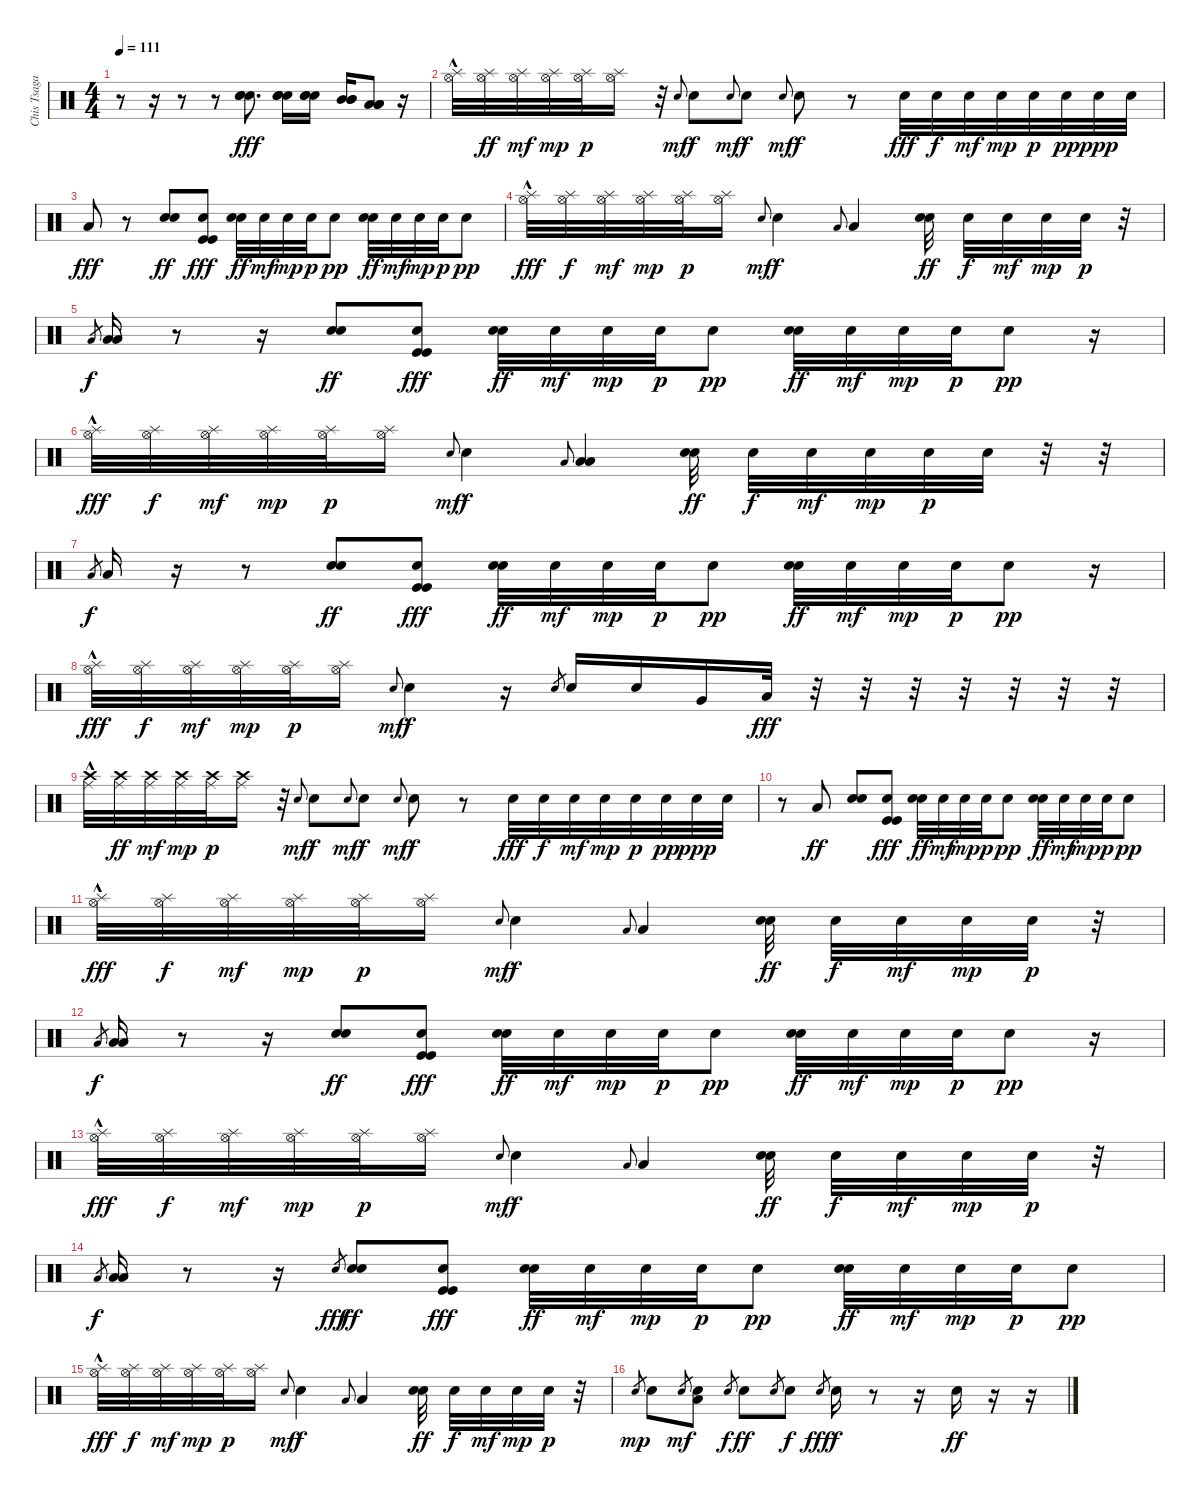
\track ("Chis Tsagakis" "Chis Tsaga") {instrument percussion}
\staff {score}
\articulation defaults
\ts (4 4)
\tempo 111
\clef neutral
\ks c
r.8{dy f} r.16 r.8 r.8 ("Electric Snare (hit)" "Snare (hit) 2" "Snare (hit) 2").8{d dy fff} ("Electric Snare (hit)" "Snare (hit) 2" "Snare (hit) 2").16 ("Electric Snare (hit)" "Snare (hit) 2" "Snare (hit) 2").16 ("Mid Tom (hit)" "Mid Tom (hit)" "Mid Tom (hit)").16 ("Low Tom (hit)" "Low Tom (hit)" "Low Tom (hit)").8 r.16 |
("Splash (hit)"{hac} "Hi-Hat (open)").32 ("Splash (hit)" "Hi-Hat (open)").32{dy ff} ("Splash (hit)" "Hi-Hat (open)").32{dy mf} ("Splash (hit)" "Hi-Hat (open)").32{dy mp} ("Splash (hit)" "Hi-Hat (open)").32{dy p} ("Splash (hit)" "Hi-Hat (open)").16 r.32 "Snare (hit) 2".8{gr onbeat dy mf} "Snare (hit) 2".8{dy f} "Snare (hit) 2".8{gr onbeat dy mf} "Snare (hit) 2".8{dy f} "Snare (hit) 2".8{gr onbeat dy mf} "Snare (hit) 2".8{dy f} r.8 "Electric Snare (hit)".32{dy fff} "Electric Snare (hit)".32{dy f} "Electric Snare (hit)".32{dy mf} "Electric Snare (hit)".32{dy mp} "Electric Snare (hit)".32{dy p} "Electric Snare (hit)".32{dy pp} "Electric Snare (hit)".32{dy ppp} "Electric Snare (hit)".32 |
"Low Tom (hit)".8{dy fff} r.8 ("Snare (hit) 2" "Snare (hit) 2").8{dy ff} ("Snare (hit) 2" "Kick (hit)" "Kick (hit)").8{dy fff} ("Snare (hit) 2" "Snare (hit) 2").32{dy ff} "Snare (hit) 2".32{dy mf} "Snare (hit) 2".32{dy mp} "Snare (hit) 2".32{dy p} "Snare (hit) 2".8{dy pp} ("Snare (hit) 2" "Snare (hit) 2").32{dy ff} "Snare (hit) 2".32{dy mf} "Snare (hit) 2".32{dy mp} "Snare (hit) 2".32{dy p} "Snare (hit) 2".8{dy pp} |
("Splash (hit)"{hac} "Hi-Hat (open)").32{dy fff} ("Splash (hit)" "Hi-Hat (open)").32{dy f} ("Splash (hit)" "Hi-Hat (open)").32{dy mf} ("Splash (hit)" "Hi-Hat (open)").32{dy mp} ("Splash (hit)" "Hi-Hat (open)").32{dy p} ("Splash (hit)" "Hi-Hat (open)").16 "Snare (hit) 2".8{gr onbeat dy mf} "Snare (hit) 2".4{dy f} "Low Tom (hit)".8{gr onbeat} "Low Tom (hit)".4 ("Electric Snare (hit)" "Electric Snare (hit)").32{dy ff} "Electric Snare (hit)".32{dy f} "Electric Snare (hit)".32{dy mf} "Electric Snare (hit)".32{dy mp} "Electric Snare (hit)".32{dy p} r.32 |
"Low Tom (hit)".8{gr dy f} ("Low Tom (hit)" "Low Tom (hit)").16 r.8 r.16 ("Snare (hit) 2" "Snare (hit) 2").8{dy ff} ("Snare (hit) 2" "Kick (hit)" "Kick (hit)").8{dy fff} ("Snare (hit) 2" "Snare (hit) 2").32{dy ff} "Snare (hit) 2".32{dy mf} "Snare (hit) 2".32{dy mp} "Snare (hit) 2".32{dy p} "Snare (hit) 2".8{dy pp} ("Snare (hit) 2" "Snare (hit) 2").32{dy ff} "Snare (hit) 2".32{dy mf} "Snare (hit) 2".32{dy mp} "Snare (hit) 2".32{dy p} "Snare (hit) 2".8{dy pp} r.16 |
("Splash (hit)"{hac} "Hi-Hat (open)").32{dy fff} ("Splash (hit)" "Hi-Hat (open)").32{dy f} ("Splash (hit)" "Hi-Hat (open)").32{dy mf} ("Splash (hit)" "Hi-Hat (open)").32{dy mp} ("Splash (hit)" "Hi-Hat (open)").32{dy p} ("Splash (hit)" "Hi-Hat (open)").16 "Snare (hit) 2".8{gr onbeat dy mf} "Snare (hit) 2".4{dy f} "Low Floor Tom (hit)".8{gr onbeat} ("Low Floor Tom (hit)" "Low Floor Tom (hit)").4 ("Electric Snare (hit)" "Electric Snare (hit)").32{dy ff} "Electric Snare (hit)".32{dy f} "Electric Snare (hit)".32{dy mf} "Electric Snare (hit)".32{dy mp} "Electric Snare (hit)".32{dy p} "Electric Snare (hit)".32 r.32 r.32 |
"Low Tom (hit)".8{gr dy f} "Low Tom (hit)".16 r.16 r.8 ("Snare (hit) 2" "Snare (hit) 2").8{dy ff} ("Snare (hit) 2" "Kick (hit)" "Kick (hit)").8{dy fff} ("Snare (hit) 2" "Snare (hit) 2").32{dy ff} "Snare (hit) 2".32{dy mf} "Snare (hit) 2".32{dy mp} "Snare (hit) 2".32{dy p} "Snare (hit) 2".8{dy pp} ("Snare (hit) 2" "Snare (hit) 2").32{dy ff} "Snare (hit) 2".32{dy mf} "Snare (hit) 2".32{dy mp} "Snare (hit) 2".32{dy p} "Snare (hit) 2".8{dy pp} r.16 |
("Splash (hit)"{hac} "Hi-Hat (open)").32{dy fff} ("Splash (hit)" "Hi-Hat (open)").32{dy f} ("Splash (hit)" "Hi-Hat (open)").32{dy mf} ("Splash (hit)" "Hi-Hat (open)").32{dy mp} ("Splash (hit)" "Hi-Hat (open)").32{dy p} ("Splash (hit)" "Hi-Hat (open)").16 "Snare (hit) 2".8{gr onbeat dy mf} "Snare (hit) 2".4{dy f} r.16 "Electric Snare (hit)".8{gr} "Electric Snare (hit)".16 "Electric Snare (hit)".16 "Very Low Tom (hit)".16 "Low Floor Tom (hit)".32{dy fff} r.32 r.32 r.32 r.32 r.32 r.32 r.32 |
("Ride (middle)"{hac} "Crash high (hit)").32 ("Ride (middle)" "Crash high (hit)").32{dy ff} ("Ride (middle)" "Crash high (hit)").32{dy mf} ("Ride (middle)" "Crash high (hit)").32{dy mp} ("Ride (middle)" "Crash high (hit)").32{dy p} ("Ride (middle)" "Crash high (hit)").16 r.32 "Snare (hit) 2".8{gr onbeat dy mf} "Snare (hit) 2".8{dy f} "Snare (hit) 2".8{gr onbeat dy mf} "Snare (hit) 2".8{dy f} "Snare (hit) 2".8{gr onbeat dy mf} "Snare (hit) 2".8{dy f} r.8 "Electric Snare (hit)".32{dy fff} "Electric Snare (hit)".32{dy f} "Electric Snare (hit)".32{dy mf} "Electric Snare (hit)".32{dy mp} "Electric Snare (hit)".32{dy p} "Electric Snare (hit)".32{dy pp} "Electric Snare (hit)".32{dy ppp} "Electric Snare (hit)".32 |
r.8 "Low Floor Tom (hit)".8{dy ff} ("Snare (hit) 2" "Snare (hit) 2").8 ("Snare (hit) 2" "Kick (hit)" "Kick (hit)").8{dy fff} ("Snare (hit) 2" "Snare (hit) 2").32{dy ff} "Snare (hit) 2".32{dy mf} "Snare (hit) 2".32{dy mp} "Snare (hit) 2".32{dy p} "Snare (hit) 2".8{dy pp} ("Snare (hit) 2" "Snare (hit) 2").32{dy ff} "Snare (hit) 2".32{dy mf} "Snare (hit) 2".32{dy mp} "Snare (hit) 2".32{dy p} "Snare (hit) 2".8{dy pp} |
("Splash (hit)"{hac} "Hi-Hat (open)").32{dy fff} ("Splash (hit)" "Hi-Hat (open)").32{dy f} ("Splash (hit)" "Hi-Hat (open)").32{dy mf} ("Splash (hit)" "Hi-Hat (open)").32{dy mp} ("Splash (hit)" "Hi-Hat (open)").32{dy p} ("Splash (hit)" "Hi-Hat (open)").16 "Snare (hit) 2".8{gr onbeat dy mf} "Snare (hit) 2".4{dy f} "Low Tom (hit)".8{gr onbeat} "Low Tom (hit)".4 ("Electric Snare (hit)" "Electric Snare (hit)").32{dy ff} "Electric Snare (hit)".32{dy f} "Electric Snare (hit)".32{dy mf} "Electric Snare (hit)".32{dy mp} "Electric Snare (hit)".32{dy p} r.32 |
"Low Tom (hit)".8{gr dy f} ("Low Tom (hit)" "Low Tom (hit)").16 r.8 r.16 ("Snare (hit) 2" "Snare (hit) 2").8{dy ff} ("Snare (hit) 2" "Kick (hit)" "Kick (hit)").8{dy fff} ("Snare (hit) 2" "Snare (hit) 2").32{dy ff} "Snare (hit) 2".32{dy mf} "Snare (hit) 2".32{dy mp} "Snare (hit) 2".32{dy p} "Snare (hit) 2".8{dy pp} ("Snare (hit) 2" "Snare (hit) 2").32{dy ff} "Snare (hit) 2".32{dy mf} "Snare (hit) 2".32{dy mp} "Snare (hit) 2".32{dy p} "Snare (hit) 2".8{dy pp} r.16 |
("Splash (hit)"{hac} "Hi-Hat (open)").32{dy fff} ("Splash (hit)" "Hi-Hat (open)").32{dy f} ("Splash (hit)" "Hi-Hat (open)").32{dy mf} ("Splash (hit)" "Hi-Hat (open)").32{dy mp} ("Splash (hit)" "Hi-Hat (open)").32{dy p} ("Splash (hit)" "Hi-Hat (open)").16 "Snare (hit) 2".8{gr onbeat dy mf} "Snare (hit) 2".4{dy f} "Low Tom (hit)".8{gr onbeat} "Low Tom (hit)".4 ("Electric Snare (hit)" "Electric Snare (hit)").32{dy ff} "Electric Snare (hit)".32{dy f} "Electric Snare (hit)".32{dy mf} "Electric Snare (hit)".32{dy mp} "Electric Snare (hit)".32{dy p} r.32 |
"Low Tom (hit)".8{gr dy f} ("Low Tom (hit)" "Low Tom (hit)").16 r.8 r.16 "Snare (hit) 2".8{gr dy fff} ("Snare (hit) 2" "Snare (hit) 2").8{dy ff} ("Snare (hit) 2" "Kick (hit)" "Kick (hit)").8{dy fff} ("Snare (hit) 2" "Snare (hit) 2").32{dy ff} "Snare (hit) 2".32{dy mf} "Snare (hit) 2".32{dy mp} "Snare (hit) 2".32{dy p} "Snare (hit) 2".8{dy pp} ("Snare (hit) 2" "Snare (hit) 2").32{dy ff} "Snare (hit) 2".32{dy mf} "Snare (hit) 2".32{dy mp} "Snare (hit) 2".32{dy p} "Snare (hit) 2".8{dy pp} |
("Splash (hit)"{hac} "Hi-Hat (open)").32{dy fff} ("Splash (hit)" "Hi-Hat (open)").32{dy f} ("Splash (hit)" "Hi-Hat (open)").32{dy mf} ("Splash (hit)" "Hi-Hat (open)").32{dy mp} ("Splash (hit)" "Hi-Hat (open)").32{dy p} ("Splash (hit)" "Hi-Hat (open)").16 "Snare (hit) 2".8{gr onbeat dy mf} "Snare (hit) 2".4{dy f} "Low Tom (hit)".8{gr onbeat} "Low Tom (hit)".4 ("Electric Snare (hit)" "Electric Snare (hit)").32{dy ff} "Electric Snare (hit)".32{dy f} "Electric Snare (hit)".32{dy mf} "Electric Snare (hit)".32{dy mp} "Electric Snare (hit)".32{dy p} r.32 |
"Snare (hit) 2".8{gr dy mp} "Snare (hit) 2".8 "Snare (hit) 2".8{gr dy mf} ("Snare (hit) 2" "Low Tom (hit)").8 "Snare (hit) 2".8{gr dy f} "Snare (hit) 2".8{dy ff} "Snare (hit) 2".8{gr} "Snare (hit) 2".8{dy f} "Snare (hit) 2".8{gr dy fff} "Snare (hit) 2".16{dy f} r.8 r.16 "Snare (hit) 2".16{dy ff} r.16 r.16
